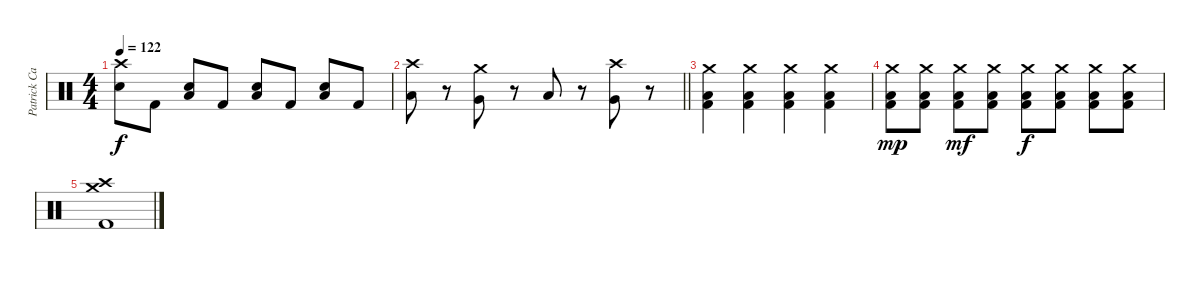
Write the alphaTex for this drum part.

\track ("Patrick Carney" "Patrick Ca") {instrument percussion}
\staff {score}
\articulation defaults
\ts (4 4)
\tempo 122
\clef neutral
\ks c
("Crash high (hit)" "Electric Snare (hit)").8{dy f} "Kick (hit) 2".8 ("Electric Snare (hit)" "Low Floor Tom (hit)").8 "Kick (hit) 2".8 ("Electric Snare (hit)" "Low Floor Tom (hit)").8 "Kick (hit) 2".8 ("Electric Snare (hit)" "Low Floor Tom (hit)").8 "Kick (hit) 2".8 |
\barLineRight lightlight
("Crash high (hit)" "Low Floor Tom (hit)").8 r.8 ("Crash medium (hit)" "Very Low Tom (hit)").8 r.8 "Low Floor Tom (hit)".8 r.8 ("Crash high (hit)" "Very Low Tom (hit)").8 r.8 |
("Crash medium (hit)" "Low Floor Tom (hit)" "Kick (hit) 2").4 ("Crash medium (hit)" "Low Floor Tom (hit)" "Kick (hit) 2").4 ("Crash medium (hit)" "Low Floor Tom (hit)" "Kick (hit) 2").4 ("Crash medium (hit)" "Low Floor Tom (hit)" "Kick (hit) 2").4 |
("Crash medium (hit)" "Low Floor Tom (hit)" "Kick (hit) 2").8{dy mp} ("Crash medium (hit)" "Low Floor Tom (hit)" "Kick (hit) 2").8 ("Crash medium (hit)" "Low Floor Tom (hit)" "Kick (hit) 2").8{dy mf} ("Crash medium (hit)" "Low Floor Tom (hit)" "Kick (hit) 2").8 ("Crash medium (hit)" "Low Floor Tom (hit)" "Kick (hit) 2").8{dy f} ("Crash medium (hit)" "Low Floor Tom (hit)" "Kick (hit) 2").8 ("Crash medium (hit)" "Low Floor Tom (hit)" "Kick (hit) 2").8 ("Crash medium (hit)" "Low Floor Tom (hit)" "Kick (hit) 2").8 |
("Crash high (hit)" "Crash medium (hit)" "Kick (hit) 2").1
